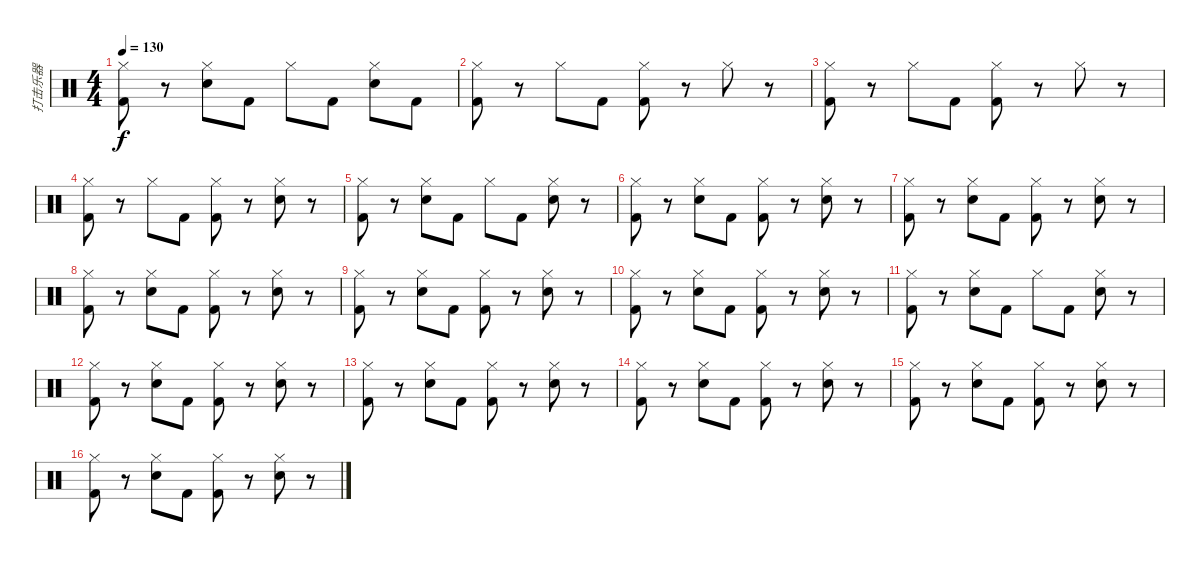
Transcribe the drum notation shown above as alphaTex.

\track ("打击乐器" "打击乐器") {instrument percussion}
\staff {score}
\articulation defaults
\ts (4 4)
\tempo 130
\clef neutral
\ks c
("Hi-Hat (closed)" "Kick (hit) 2").8{dy f} r.8 ("Hi-Hat (closed)" "Electric Snare (hit)").8 "Kick (hit) 2".8 "Hi-Hat (closed)".8 "Kick (hit) 2".8 ("Hi-Hat (closed)" "Electric Snare (hit)").8 "Kick (hit) 2".8 |
("Hi-Hat (closed)" "Kick (hit) 2").8 r.8 "Hi-Hat (closed)".8 "Kick (hit) 2".8 ("Hi-Hat (closed)" "Kick (hit) 2").8 r.8 "Hi-Hat (closed)".8 r.8 |
("Hi-Hat (closed)" "Kick (hit) 2").8 r.8 "Hi-Hat (closed)".8 "Kick (hit) 2".8 ("Hi-Hat (closed)" "Kick (hit) 2").8 r.8 "Hi-Hat (closed)".8 r.8 |
("Hi-Hat (closed)" "Kick (hit) 2").8 r.8 "Hi-Hat (closed)".8 "Kick (hit) 2".8 ("Hi-Hat (closed)" "Kick (hit) 2").8 r.8 ("Hi-Hat (closed)" "Electric Snare (hit)").8 r.8 |
("Hi-Hat (closed)" "Kick (hit) 2").8 r.8 ("Hi-Hat (closed)" "Electric Snare (hit)").8 "Kick (hit) 2".8 "Hi-Hat (closed)".8 "Kick (hit) 2".8 ("Hi-Hat (closed)" "Electric Snare (hit)").8 r.8 |
("Hi-Hat (closed)" "Kick (hit) 2").8 r.8 ("Hi-Hat (closed)" "Electric Snare (hit)").8 "Kick (hit) 2".8 ("Hi-Hat (closed)" "Kick (hit) 2").8 r.8 ("Hi-Hat (closed)" "Electric Snare (hit)").8 r.8 |
("Hi-Hat (closed)" "Kick (hit) 2").8 r.8 ("Hi-Hat (closed)" "Electric Snare (hit)").8 "Kick (hit) 2".8 ("Hi-Hat (closed)" "Kick (hit) 2").8 r.8 ("Hi-Hat (closed)" "Electric Snare (hit)").8 r.8 |
("Hi-Hat (closed)" "Kick (hit) 2").8 r.8 ("Hi-Hat (closed)" "Electric Snare (hit)").8 "Kick (hit) 2".8 ("Hi-Hat (closed)" "Kick (hit) 2").8 r.8 ("Hi-Hat (closed)" "Electric Snare (hit)").8 r.8 |
("Hi-Hat (closed)" "Kick (hit) 2").8 r.8 ("Hi-Hat (closed)" "Electric Snare (hit)").8 "Kick (hit) 2".8 ("Hi-Hat (closed)" "Kick (hit) 2").8 r.8 ("Hi-Hat (closed)" "Electric Snare (hit)").8 r.8 |
("Hi-Hat (closed)" "Kick (hit) 2").8 r.8 ("Hi-Hat (closed)" "Electric Snare (hit)").8 "Kick (hit) 2".8 ("Hi-Hat (closed)" "Kick (hit) 2").8 r.8 ("Hi-Hat (closed)" "Electric Snare (hit)").8 r.8 |
("Hi-Hat (closed)" "Kick (hit) 2").8 r.8 ("Hi-Hat (closed)" "Electric Snare (hit)").8 "Kick (hit) 2".8 "Hi-Hat (closed)".8 "Kick (hit) 2".8 ("Hi-Hat (closed)" "Electric Snare (hit)").8 r.8 |
("Hi-Hat (closed)" "Kick (hit) 2").8 r.8 ("Hi-Hat (closed)" "Electric Snare (hit)").8 "Kick (hit) 2".8 ("Hi-Hat (closed)" "Kick (hit) 2").8 r.8 ("Hi-Hat (closed)" "Electric Snare (hit)").8 r.8 |
("Hi-Hat (closed)" "Kick (hit) 2").8 r.8 ("Hi-Hat (closed)" "Electric Snare (hit)").8 "Kick (hit) 2".8 ("Hi-Hat (closed)" "Kick (hit) 2").8 r.8 ("Hi-Hat (closed)" "Electric Snare (hit)").8 r.8 |
("Hi-Hat (closed)" "Kick (hit) 2").8 r.8 ("Hi-Hat (closed)" "Electric Snare (hit)").8 "Kick (hit) 2".8 ("Hi-Hat (closed)" "Kick (hit) 2").8 r.8 ("Hi-Hat (closed)" "Electric Snare (hit)").8 r.8 |
("Hi-Hat (closed)" "Kick (hit) 2").8 r.8 ("Hi-Hat (closed)" "Electric Snare (hit)").8 "Kick (hit) 2".8 ("Hi-Hat (closed)" "Kick (hit) 2").8 r.8 ("Hi-Hat (closed)" "Electric Snare (hit)").8 r.8 |
("Hi-Hat (closed)" "Kick (hit) 2").8 r.8 ("Hi-Hat (closed)" "Electric Snare (hit)").8 "Kick (hit) 2".8 ("Hi-Hat (closed)" "Kick (hit) 2").8 r.8 ("Hi-Hat (closed)" "Electric Snare (hit)").8 r.8
